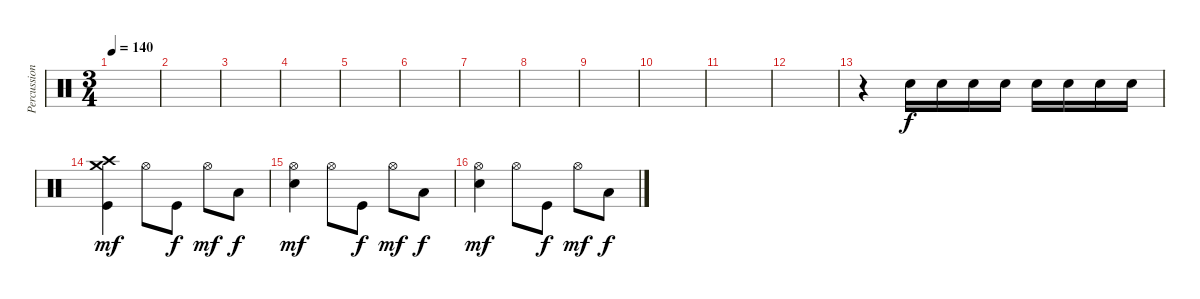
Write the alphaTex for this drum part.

\track ("Percussion" "Percussion") {instrument percussion}
\staff {score}
\articulation defaults
\ts (3 4)
\tempo 140
\clef neutral
\ks c
|
|
|
|
|
|
|
|
|
|
|
|
r.4 "Electric Snare (hit)".16 "Electric Snare (hit)".16 "Electric Snare (hit)".16 "Electric Snare (hit)".16 "Electric Snare (hit)".16 "Electric Snare (hit)".16 "Electric Snare (hit)".16 "Electric Snare (hit)".16 |
("Kick (hit)" "Crash high (hit)" "Crash medium (hit)").4{dy mf} "Hi-Hat (open)".8 "Kick (hit)".8{dy f} "Hi-Hat (open)".8{dy mf} "Low Floor Tom (hit)".8{dy f} |
("Electric Snare (hit)" "Hi-Hat (open)").4{dy mf} "Hi-Hat (open)".8 "Kick (hit)".8{dy f} "Hi-Hat (open)".8{dy mf} "Low Floor Tom (hit)".8{dy f} |
("Electric Snare (hit)" "Hi-Hat (open)").4{dy mf} "Hi-Hat (open)".8 "Kick (hit)".8{dy f} "Hi-Hat (open)".8{dy mf} "Low Floor Tom (hit)".8{dy f}
